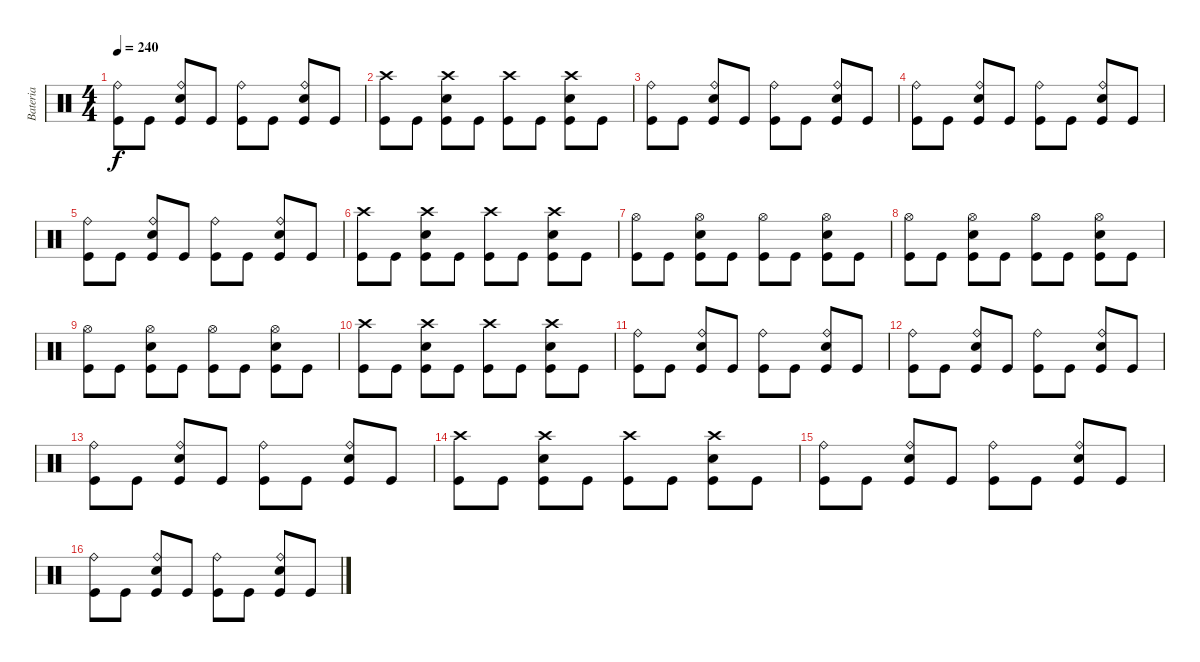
\track ("Bateria" "Bateria") {instrument percussion}
\staff {score}
\articulation defaults
\ts (4 4)
\tempo 240
\clef neutral
\ks c
("Kick (hit)" "Ride (bell)").8{dy f} "Kick (hit)".8 ("Kick (hit)" "Electric Snare (hit)" "Ride (bell)").8 "Kick (hit)".8 ("Kick (hit)" "Ride (bell)").8 "Kick (hit)".8 ("Kick (hit)" "Electric Snare (hit)" "Ride (bell)").8 "Kick (hit)".8 |
("Kick (hit)" "Crash high (hit)").8 "Kick (hit)".8 ("Kick (hit)" "Electric Snare (hit)" "Crash high (hit)").8 "Kick (hit)".8 ("Kick (hit)" "Crash high (hit)").8 "Kick (hit)".8 ("Kick (hit)" "Electric Snare (hit)" "Crash high (hit)").8 "Kick (hit)".8 |
("Kick (hit)" "Ride (bell)").8 "Kick (hit)".8 ("Kick (hit)" "Electric Snare (hit)" "Ride (bell)").8 "Kick (hit)".8 ("Kick (hit)" "Ride (bell)").8 "Kick (hit)".8 ("Kick (hit)" "Electric Snare (hit)" "Ride (bell)").8 "Kick (hit)".8 |
("Kick (hit)" "Ride (bell)").8 "Kick (hit)".8 ("Kick (hit)" "Electric Snare (hit)" "Ride (bell)").8 "Kick (hit)".8 ("Kick (hit)" "Ride (bell)").8 "Kick (hit)".8 ("Kick (hit)" "Electric Snare (hit)" "Ride (bell)").8 "Kick (hit)".8 |
("Kick (hit)" "Ride (bell)").8 "Kick (hit)".8 ("Kick (hit)" "Electric Snare (hit)" "Ride (bell)").8 "Kick (hit)".8 ("Kick (hit)" "Ride (bell)").8 "Kick (hit)".8 ("Kick (hit)" "Electric Snare (hit)" "Ride (bell)").8 "Kick (hit)".8 |
("Kick (hit)" "Crash high (hit)").8 "Kick (hit)".8 ("Kick (hit)" "Electric Snare (hit)" "Crash high (hit)").8 "Kick (hit)".8 ("Kick (hit)" "Crash high (hit)").8 "Kick (hit)".8 ("Kick (hit)" "Electric Snare (hit)" "Crash high (hit)").8 "Kick (hit)".8 |
("Kick (hit)" "Hi-Hat (open)").8 "Kick (hit)".8 ("Kick (hit)" "Electric Snare (hit)" "Hi-Hat (open)").8 "Kick (hit)".8 ("Kick (hit)" "Hi-Hat (open)").8 "Kick (hit)".8 ("Kick (hit)" "Electric Snare (hit)" "Hi-Hat (open)").8 "Kick (hit)".8 |
("Kick (hit)" "Hi-Hat (open)").8 "Kick (hit)".8 ("Kick (hit)" "Electric Snare (hit)" "Hi-Hat (open)").8 "Kick (hit)".8 ("Kick (hit)" "Hi-Hat (open)").8 "Kick (hit)".8 ("Kick (hit)" "Electric Snare (hit)" "Hi-Hat (open)").8 "Kick (hit)".8 |
("Kick (hit)" "Hi-Hat (open)").8 "Kick (hit)".8 ("Kick (hit)" "Electric Snare (hit)" "Hi-Hat (open)").8 "Kick (hit)".8 ("Kick (hit)" "Hi-Hat (open)").8 "Kick (hit)".8 ("Kick (hit)" "Electric Snare (hit)" "Hi-Hat (open)").8 "Kick (hit)".8 |
("Kick (hit)" "Crash high (hit)").8 "Kick (hit)".8 ("Kick (hit)" "Electric Snare (hit)" "Crash high (hit)").8 "Kick (hit)".8 ("Kick (hit)" "Crash high (hit)").8 "Kick (hit)".8 ("Kick (hit)" "Electric Snare (hit)" "Crash high (hit)").8 "Kick (hit)".8 |
("Kick (hit)" "Ride (bell)").8 "Kick (hit)".8 ("Kick (hit)" "Electric Snare (hit)" "Ride (bell)").8 "Kick (hit)".8 ("Kick (hit)" "Ride (bell)").8 "Kick (hit)".8 ("Kick (hit)" "Electric Snare (hit)" "Ride (bell)").8 "Kick (hit)".8 |
("Kick (hit)" "Ride (bell)").8 "Kick (hit)".8 ("Kick (hit)" "Electric Snare (hit)" "Ride (bell)").8 "Kick (hit)".8 ("Kick (hit)" "Ride (bell)").8 "Kick (hit)".8 ("Kick (hit)" "Electric Snare (hit)" "Ride (bell)").8 "Kick (hit)".8 |
("Kick (hit)" "Ride (bell)").8 "Kick (hit)".8 ("Kick (hit)" "Electric Snare (hit)" "Ride (bell)").8 "Kick (hit)".8 ("Kick (hit)" "Ride (bell)").8 "Kick (hit)".8 ("Kick (hit)" "Electric Snare (hit)" "Ride (bell)").8 "Kick (hit)".8 |
("Kick (hit)" "Crash high (hit)").8 "Kick (hit)".8 ("Kick (hit)" "Electric Snare (hit)" "Crash high (hit)").8 "Kick (hit)".8 ("Kick (hit)" "Crash high (hit)").8 "Kick (hit)".8 ("Kick (hit)" "Electric Snare (hit)" "Crash high (hit)").8 "Kick (hit)".8 |
("Kick (hit)" "Ride (bell)").8 "Kick (hit)".8 ("Kick (hit)" "Electric Snare (hit)" "Ride (bell)").8 "Kick (hit)".8 ("Kick (hit)" "Ride (bell)").8 "Kick (hit)".8 ("Kick (hit)" "Electric Snare (hit)" "Ride (bell)").8 "Kick (hit)".8 |
("Kick (hit)" "Ride (bell)").8 "Kick (hit)".8 ("Kick (hit)" "Electric Snare (hit)" "Ride (bell)").8 "Kick (hit)".8 ("Kick (hit)" "Ride (bell)").8 "Kick (hit)".8 ("Kick (hit)" "Electric Snare (hit)" "Ride (bell)").8 "Kick (hit)".8
